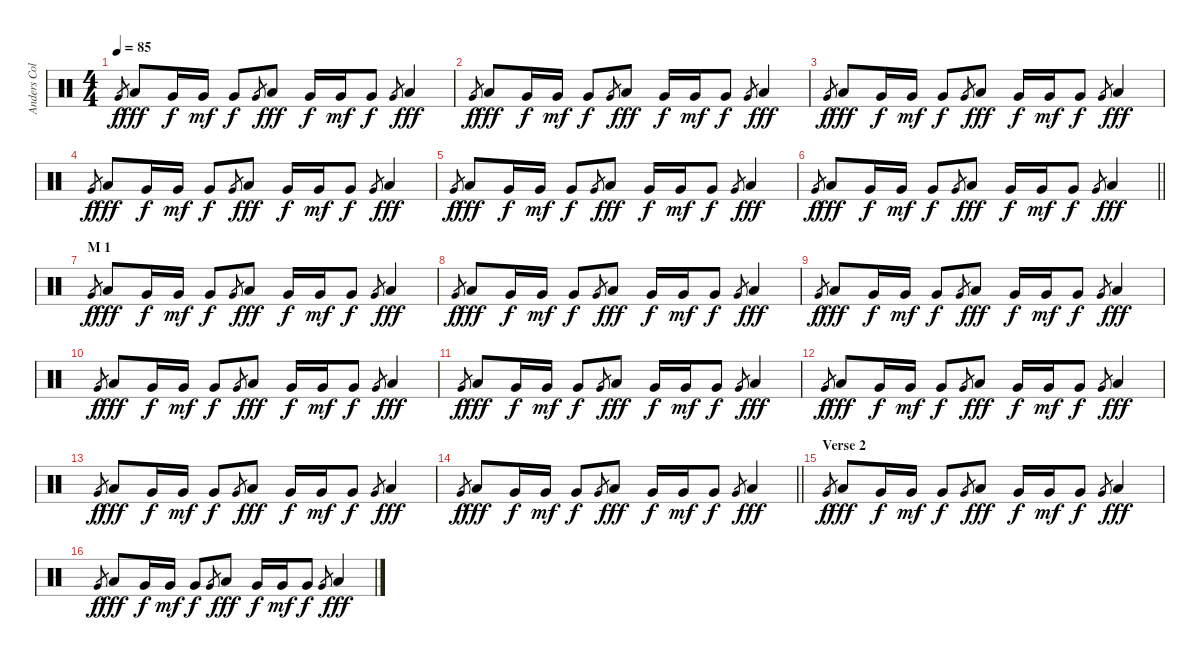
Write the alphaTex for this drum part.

\track ("Anders Colsefni" "Anders Col") {instrument percussion}
\staff {score}
\articulation defaults
\ts (4 4)
\tempo 85
\clef neutral
\ks c "Very Low Tom (hit)".8{gr dy f} "Low Tom (hit)".8{dy fff} "Very Low Tom (hit)".16{dy f} "Very Low Tom (hit)".16{dy mf} "Very Low Tom (hit)".8{dy f} "Very Low Tom (hit)".8{gr} "Low Tom (hit)".8{dy fff} "Very Low Tom (hit)".16{dy f} "Very Low Tom (hit)".16{dy mf} "Very Low Tom (hit)".8{dy f} "Very Low Tom (hit)".8{gr} "Low Tom (hit)".4{dy fff}
|
"Very Low Tom (hit)".8{gr dy f} "Low Tom (hit)".8{dy fff} "Very Low Tom (hit)".16{dy f} "Very Low Tom (hit)".16{dy mf} "Very Low Tom (hit)".8{dy f} "Very Low Tom (hit)".8{gr} "Low Tom (hit)".8{dy fff} "Very Low Tom (hit)".16{dy f} "Very Low Tom (hit)".16{dy mf} "Very Low Tom (hit)".8{dy f} "Very Low Tom (hit)".8{gr} "Low Tom (hit)".4{dy fff} |
"Very Low Tom (hit)".8{gr dy f} "Low Tom (hit)".8{dy fff} "Very Low Tom (hit)".16{dy f} "Very Low Tom (hit)".16{dy mf} "Very Low Tom (hit)".8{dy f} "Very Low Tom (hit)".8{gr} "Low Tom (hit)".8{dy fff} "Very Low Tom (hit)".16{dy f} "Very Low Tom (hit)".16{dy mf} "Very Low Tom (hit)".8{dy f} "Very Low Tom (hit)".8{gr} "Low Tom (hit)".4{dy fff} |
"Very Low Tom (hit)".8{gr dy f} "Low Tom (hit)".8{dy fff} "Very Low Tom (hit)".16{dy f} "Very Low Tom (hit)".16{dy mf} "Very Low Tom (hit)".8{dy f} "Very Low Tom (hit)".8{gr} "Low Tom (hit)".8{dy fff} "Very Low Tom (hit)".16{dy f} "Very Low Tom (hit)".16{dy mf} "Very Low Tom (hit)".8{dy f} "Very Low Tom (hit)".8{gr} "Low Tom (hit)".4{dy fff} |
"Very Low Tom (hit)".8{gr dy f} "Low Tom (hit)".8{dy fff} "Very Low Tom (hit)".16{dy f} "Very Low Tom (hit)".16{dy mf} "Very Low Tom (hit)".8{dy f} "Very Low Tom (hit)".8{gr} "Low Tom (hit)".8{dy fff} "Very Low Tom (hit)".16{dy f} "Very Low Tom (hit)".16{dy mf} "Very Low Tom (hit)".8{dy f} "Very Low Tom (hit)".8{gr} "Low Tom (hit)".4{dy fff} |
\barLineRight lightlight "Very Low Tom (hit)".8{gr dy f} "Low Tom (hit)".8{dy fff} "Very Low Tom (hit)".16{dy f} "Very Low Tom (hit)".16{dy mf} "Very Low Tom (hit)".8{dy f} "Very Low Tom (hit)".8{gr} "Low Tom (hit)".8{dy fff} "Very Low Tom (hit)".16{dy f} "Very Low Tom (hit)".16{dy mf} "Very Low Tom (hit)".8{dy f} "Very Low Tom (hit)".8{gr} "Low Tom (hit)".4{dy fff}
|
\section ("" "M 1")
"Very Low Tom (hit)".8{gr dy f} "Low Tom (hit)".8{dy fff} "Very Low Tom (hit)".16{dy f} "Very Low Tom (hit)".16{dy mf} "Very Low Tom (hit)".8{dy f} "Very Low Tom (hit)".8{gr} "Low Tom (hit)".8{dy fff} "Very Low Tom (hit)".16{dy f} "Very Low Tom (hit)".16{dy mf} "Very Low Tom (hit)".8{dy f} "Very Low Tom (hit)".8{gr} "Low Tom (hit)".4{dy fff} |
"Very Low Tom (hit)".8{gr dy f} "Low Tom (hit)".8{dy fff} "Very Low Tom (hit)".16{dy f} "Very Low Tom (hit)".16{dy mf} "Very Low Tom (hit)".8{dy f} "Very Low Tom (hit)".8{gr} "Low Tom (hit)".8{dy fff} "Very Low Tom (hit)".16{dy f} "Very Low Tom (hit)".16{dy mf} "Very Low Tom (hit)".8{dy f} "Very Low Tom (hit)".8{gr} "Low Tom (hit)".4{dy fff} |
"Very Low Tom (hit)".8{gr dy f} "Low Tom (hit)".8{dy fff} "Very Low Tom (hit)".16{dy f} "Very Low Tom (hit)".16{dy mf} "Very Low Tom (hit)".8{dy f} "Very Low Tom (hit)".8{gr} "Low Tom (hit)".8{dy fff} "Very Low Tom (hit)".16{dy f} "Very Low Tom (hit)".16{dy mf} "Very Low Tom (hit)".8{dy f} "Very Low Tom (hit)".8{gr} "Low Tom (hit)".4{dy fff} |
"Very Low Tom (hit)".8{gr dy f} "Low Tom (hit)".8{dy fff} "Very Low Tom (hit)".16{dy f} "Very Low Tom (hit)".16{dy mf} "Very Low Tom (hit)".8{dy f} "Very Low Tom (hit)".8{gr} "Low Tom (hit)".8{dy fff} "Very Low Tom (hit)".16{dy f} "Very Low Tom (hit)".16{dy mf} "Very Low Tom (hit)".8{dy f} "Very Low Tom (hit)".8{gr} "Low Tom (hit)".4{dy fff} |
"Very Low Tom (hit)".8{gr dy f} "Low Tom (hit)".8{dy fff} "Very Low Tom (hit)".16{dy f} "Very Low Tom (hit)".16{dy mf} "Very Low Tom (hit)".8{dy f} "Very Low Tom (hit)".8{gr} "Low Tom (hit)".8{dy fff} "Very Low Tom (hit)".16{dy f} "Very Low Tom (hit)".16{dy mf} "Very Low Tom (hit)".8{dy f} "Very Low Tom (hit)".8{gr} "Low Tom (hit)".4{dy fff} |
"Very Low Tom (hit)".8{gr dy f} "Low Tom (hit)".8{dy fff} "Very Low Tom (hit)".16{dy f} "Very Low Tom (hit)".16{dy mf} "Very Low Tom (hit)".8{dy f} "Very Low Tom (hit)".8{gr} "Low Tom (hit)".8{dy fff} "Very Low Tom (hit)".16{dy f} "Very Low Tom (hit)".16{dy mf} "Very Low Tom (hit)".8{dy f} "Very Low Tom (hit)".8{gr} "Low Tom (hit)".4{dy fff} |
"Very Low Tom (hit)".8{gr dy f} "Low Tom (hit)".8{dy fff} "Very Low Tom (hit)".16{dy f} "Very Low Tom (hit)".16{dy mf} "Very Low Tom (hit)".8{dy f} "Very Low Tom (hit)".8{gr} "Low Tom (hit)".8{dy fff} "Very Low Tom (hit)".16{dy f} "Very Low Tom (hit)".16{dy mf} "Very Low Tom (hit)".8{dy f} "Very Low Tom (hit)".8{gr} "Low Tom (hit)".4{dy fff} |
\barLineRight lightlight "Very Low Tom (hit)".8{gr dy f} "Low Tom (hit)".8{dy fff} "Very Low Tom (hit)".16{dy f} "Very Low Tom (hit)".16{dy mf} "Very Low Tom (hit)".8{dy f} "Very Low Tom (hit)".8{gr} "Low Tom (hit)".8{dy fff} "Very Low Tom (hit)".16{dy f} "Very Low Tom (hit)".16{dy mf} "Very Low Tom (hit)".8{dy f} "Very Low Tom (hit)".8{gr} "Low Tom (hit)".4{dy fff}
|
\section ("" "Verse 2")
"Very Low Tom (hit)".8{gr dy f} "Low Tom (hit)".8{dy fff} "Very Low Tom (hit)".16{dy f} "Very Low Tom (hit)".16{dy mf} "Very Low Tom (hit)".8{dy f} "Very Low Tom (hit)".8{gr} "Low Tom (hit)".8{dy fff} "Very Low Tom (hit)".16{dy f} "Very Low Tom (hit)".16{dy mf} "Very Low Tom (hit)".8{dy f} "Very Low Tom (hit)".8{gr} "Low Tom (hit)".4{dy fff} |
"Very Low Tom (hit)".8{gr dy f} "Low Tom (hit)".8{dy fff} "Very Low Tom (hit)".16{dy f} "Very Low Tom (hit)".16{dy mf} "Very Low Tom (hit)".8{dy f} "Very Low Tom (hit)".8{gr} "Low Tom (hit)".8{dy fff} "Very Low Tom (hit)".16{dy f} "Very Low Tom (hit)".16{dy mf} "Very Low Tom (hit)".8{dy f} "Very Low Tom (hit)".8{gr} "Low Tom (hit)".4{dy fff}
